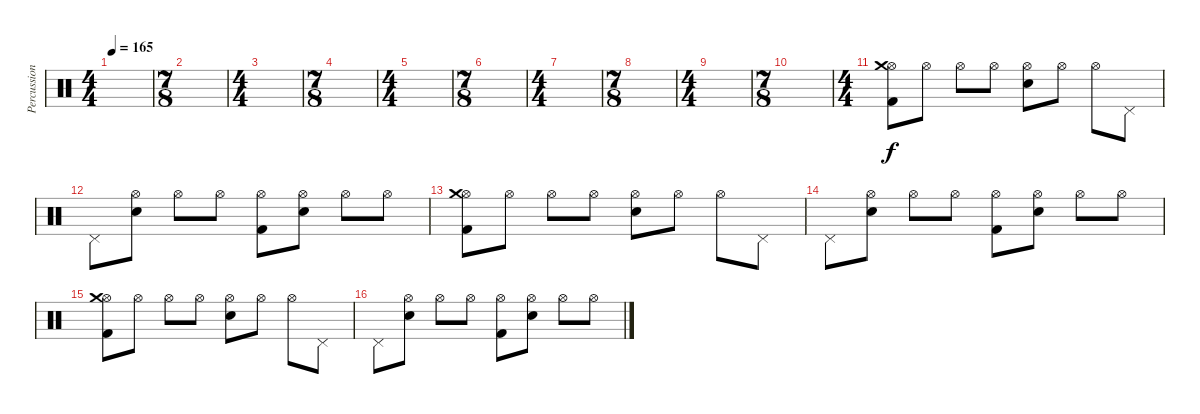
\track ("Percussion" "Percussion") {instrument percussion}
\staff {score}
\articulation defaults
\ts (4 4)
\tempo 165
\clef neutral
\ks c
|
\ts (7 8)
|
\ts (4 4)
|
\ts (7 8)
|
\ts (4 4)
|
\ts (7 8)
|
\ts (4 4)
|
\ts (7 8)
|
\ts (4 4)
|
\ts (7 8)
|
\ts (4 4)
("Hi-Hat (open)" "Crash medium (hit)" "Kick (hit) 2").8 "Hi-Hat (open)".8 "Hi-Hat (open)".8 "Hi-Hat (open)".8 ("Hi-Hat (open)" "Electric Snare (hit)").8 "Hi-Hat (open)".8 "Hi-Hat (open)".8 "Pedal Hi-Hat (hit)".8 |
"Pedal Hi-Hat (hit)".8 ("Hi-Hat (open)" "Electric Snare (hit)").8 "Hi-Hat (open)".8 "Hi-Hat (open)".8 ("Hi-Hat (open)" "Kick (hit) 2").8 ("Hi-Hat (open)" "Electric Snare (hit)").8 "Hi-Hat (open)".8 "Hi-Hat (open)".8 |
("Hi-Hat (open)" "Crash medium (hit)" "Kick (hit) 2").8 "Hi-Hat (open)".8 "Hi-Hat (open)".8 "Hi-Hat (open)".8 ("Hi-Hat (open)" "Electric Snare (hit)").8 "Hi-Hat (open)".8 "Hi-Hat (open)".8 "Pedal Hi-Hat (hit)".8 |
"Pedal Hi-Hat (hit)".8 ("Hi-Hat (open)" "Electric Snare (hit)").8 "Hi-Hat (open)".8 "Hi-Hat (open)".8 ("Hi-Hat (open)" "Kick (hit) 2").8 ("Hi-Hat (open)" "Electric Snare (hit)").8 "Hi-Hat (open)".8 "Hi-Hat (open)".8 |
("Hi-Hat (open)" "Crash medium (hit)" "Kick (hit) 2").8 "Hi-Hat (open)".8 "Hi-Hat (open)".8 "Hi-Hat (open)".8 ("Hi-Hat (open)" "Electric Snare (hit)").8 "Hi-Hat (open)".8 "Hi-Hat (open)".8 "Pedal Hi-Hat (hit)".8 |
"Pedal Hi-Hat (hit)".8 ("Hi-Hat (open)" "Electric Snare (hit)").8 "Hi-Hat (open)".8 "Hi-Hat (open)".8 ("Hi-Hat (open)" "Kick (hit) 2").8 ("Hi-Hat (open)" "Electric Snare (hit)").8 "Hi-Hat (open)".8 "Hi-Hat (open)".8
